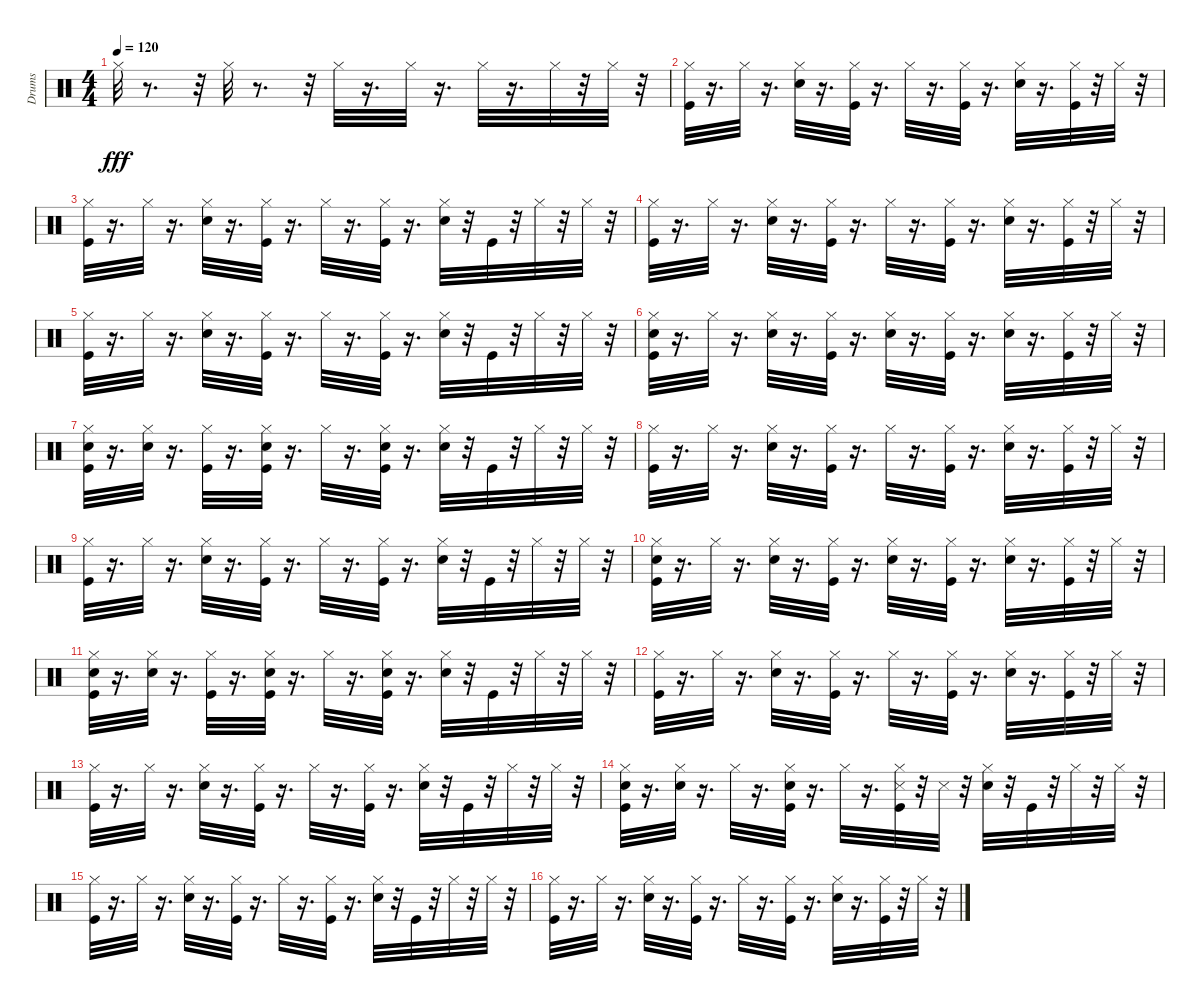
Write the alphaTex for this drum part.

\track ("Drums" "Drums") {solo instrument percussion}
\staff {score}
\articulation defaults
\ts (4 4)
\tempo 120
\clef neutral
\ks c "Hi-Hat (closed)".32{dy fff}
r.8{d} r.32 "Hi-Hat (closed)".32 r.8{d} r.32 "Hi-Hat (closed)".32 r.16{d} "Hi-Hat (closed)".32 r.16{d} "Hi-Hat (closed)".32 r.16{d} "Hi-Hat (closed)".32 r.32 "Hi-Hat (closed)".32 r.32 |
("Kick (hit)" "Hi-Hat (closed)").32 r.16{d} "Hi-Hat (closed)".32 r.16{d} ("Snare (hit) 2" "Hi-Hat (closed)").32 r.16{d} ("Kick (hit)" "Hi-Hat (closed)").32 r.16{d} "Hi-Hat (closed)".32 r.16{d} ("Kick (hit)" "Hi-Hat (closed)").32 r.16{d} ("Snare (hit) 2" "Hi-Hat (closed)").32 r.16{d} ("Kick (hit)" "Hi-Hat (closed)").32 r.32 "Hi-Hat (closed)".32 r.32 |
("Kick (hit)" "Hi-Hat (closed)").32 r.16{d} "Hi-Hat (closed)".32 r.16{d} ("Snare (hit) 2" "Hi-Hat (closed)").32 r.16{d} ("Kick (hit)" "Hi-Hat (closed)").32 r.16{d} "Hi-Hat (closed)".32 r.16{d} ("Kick (hit)" "Hi-Hat (closed)").32 r.16{d} ("Snare (hit) 2" "Hi-Hat (closed)").32 r.32 "Kick (hit)".32 r.32 "Hi-Hat (closed)".32 r.32 "Hi-Hat (closed)".32 r.32 |
("Kick (hit)" "Hi-Hat (closed)").32 r.16{d} "Hi-Hat (closed)".32 r.16{d} ("Snare (hit) 2" "Hi-Hat (closed)").32 r.16{d} ("Kick (hit)" "Hi-Hat (closed)").32 r.16{d} "Hi-Hat (closed)".32 r.16{d} ("Kick (hit)" "Hi-Hat (closed)").32 r.16{d} ("Snare (hit) 2" "Hi-Hat (closed)").32 r.16{d} ("Kick (hit)" "Hi-Hat (closed)").32 r.32 "Hi-Hat (closed)".32 r.32 |
("Kick (hit)" "Hi-Hat (closed)").32 r.16{d} "Hi-Hat (closed)".32 r.16{d} ("Snare (hit) 2" "Hi-Hat (closed)").32 r.16{d} ("Kick (hit)" "Hi-Hat (closed)").32 r.16{d} "Hi-Hat (closed)".32 r.16{d} ("Kick (hit)" "Hi-Hat (closed)").32 r.16{d} ("Snare (hit) 2" "Hi-Hat (closed)").32 r.32 "Kick (hit)".32 r.32 "Hi-Hat (closed)".32 r.32 "Hi-Hat (closed)".32 r.32 |
("Kick (hit)" "Snare (hit) 2" "Hi-Hat (closed)").32 r.16{d} "Hi-Hat (closed)".32 r.16{d} ("Snare (hit) 2" "Hi-Hat (closed)").32 r.16{d} ("Kick (hit)" "Hi-Hat (closed)").32 r.16{d} ("Snare (hit) 2" "Hi-Hat (closed)").32 r.16{d} ("Kick (hit)" "Hi-Hat (closed)").32 r.16{d} ("Snare (hit) 2" "Hi-Hat (closed)").32 r.16{d} ("Kick (hit)" "Hi-Hat (closed)").32 r.32 "Hi-Hat (closed)".32 r.32 |
("Kick (hit)" "Snare (hit) 2" "Hi-Hat (closed)").32 r.16{d} ("Snare (hit) 2" "Hi-Hat (closed)").32 r.16{d} ("Kick (hit)" "Hi-Hat (closed)").32 r.16{d} ("Kick (hit)" "Snare (hit) 2" "Hi-Hat (closed)").32 r.16{d} "Hi-Hat (closed)".32 r.16{d} ("Kick (hit)" "Snare (hit) 2" "Hi-Hat (closed)").32 r.16{d} ("Snare (hit) 2" "Hi-Hat (closed)").32 r.32 "Kick (hit)".32 r.32 "Hi-Hat (closed)".32 r.32 "Hi-Hat (closed)".32 r.32 |
("Kick (hit)" "Hi-Hat (closed)").32 r.16{d} "Hi-Hat (closed)".32 r.16{d} ("Snare (hit) 2" "Hi-Hat (closed)").32 r.16{d} ("Kick (hit)" "Hi-Hat (closed)").32 r.16{d} "Hi-Hat (closed)".32 r.16{d} ("Kick (hit)" "Hi-Hat (closed)").32 r.16{d} ("Snare (hit) 2" "Hi-Hat (closed)").32 r.16{d} ("Kick (hit)" "Hi-Hat (closed)").32 r.32 "Hi-Hat (closed)".32 r.32 |
("Kick (hit)" "Hi-Hat (closed)").32 r.16{d} "Hi-Hat (closed)".32 r.16{d} ("Snare (hit) 2" "Hi-Hat (closed)").32 r.16{d} ("Kick (hit)" "Hi-Hat (closed)").32 r.16{d} "Hi-Hat (closed)".32 r.16{d} ("Kick (hit)" "Hi-Hat (closed)").32 r.16{d} ("Snare (hit) 2" "Hi-Hat (closed)").32 r.32 "Kick (hit)".32 r.32 "Hi-Hat (closed)".32 r.32 "Hi-Hat (closed)".32 r.32 |
("Kick (hit)" "Snare (hit) 2" "Hi-Hat (closed)").32 r.16{d} "Hi-Hat (closed)".32 r.16{d} ("Snare (hit) 2" "Hi-Hat (closed)").32 r.16{d} ("Kick (hit)" "Hi-Hat (closed)").32 r.16{d} ("Snare (hit) 2" "Hi-Hat (closed)").32 r.16{d} ("Kick (hit)" "Hi-Hat (closed)").32 r.16{d} ("Snare (hit) 2" "Hi-Hat (closed)").32 r.16{d} ("Kick (hit)" "Hi-Hat (closed)").32 r.32 "Hi-Hat (closed)".32 r.32 |
("Kick (hit)" "Snare (hit) 2" "Hi-Hat (closed)").32 r.16{d} ("Snare (hit) 2" "Hi-Hat (closed)").32 r.16{d} ("Kick (hit)" "Hi-Hat (closed)").32 r.16{d} ("Kick (hit)" "Snare (hit) 2" "Hi-Hat (closed)").32 r.16{d} "Hi-Hat (closed)".32 r.16{d} ("Kick (hit)" "Snare (hit) 2" "Hi-Hat (closed)").32 r.16{d} ("Snare (hit) 2" "Hi-Hat (closed)").32 r.32 "Kick (hit)".32 r.32 "Hi-Hat (closed)".32 r.32 "Hi-Hat (closed)".32 r.32 |
("Kick (hit)" "Hi-Hat (closed)").32 r.16{d} "Hi-Hat (closed)".32 r.16{d} ("Snare (hit) 2" "Hi-Hat (closed)").32 r.16{d} ("Kick (hit)" "Hi-Hat (closed)").32 r.16{d} "Hi-Hat (closed)".32 r.16{d} ("Kick (hit)" "Hi-Hat (closed)").32 r.16{d} ("Snare (hit) 2" "Hi-Hat (closed)").32 r.16{d} ("Kick (hit)" "Hi-Hat (closed)").32 r.32 "Hi-Hat (closed)".32 r.32 |
("Kick (hit)" "Hi-Hat (closed)").32 r.16{d} "Hi-Hat (closed)".32 r.16{d} ("Snare (hit) 2" "Hi-Hat (closed)").32 r.16{d} ("Kick (hit)" "Hi-Hat (closed)").32 r.16{d} "Hi-Hat (closed)".32 r.16{d} ("Kick (hit)" "Hi-Hat (closed)").32 r.16{d} ("Snare (hit) 2" "Hi-Hat (closed)").32 r.32 "Kick (hit)".32 r.32 "Hi-Hat (closed)".32 r.32 "Hi-Hat (closed)".32 r.32 |
("Kick (hit)" "Snare (hit) 2" "Hi-Hat (closed)").32 r.16{d} ("Snare (hit) 2" "Hi-Hat (closed)").32 r.16{d} "Hi-Hat (closed)".32 r.16{d} ("Kick (hit)" "Snare (hit) 2" "Hi-Hat (closed)").32 r.16{d} "Hi-Hat (closed)".32 r.16{d} ("Kick (hit)" "Hi-Hat (closed)" "Snare (side stick) 3").32 r.32 "Snare (side stick) 3".32 r.32 ("Snare (hit) 2" "Hi-Hat (closed)").32 r.32 "Kick (hit)".32 r.32 "Hi-Hat (closed)".32 r.32 "Hi-Hat (closed)".32 r.32 |
("Kick (hit)" "Hi-Hat (closed)").32 r.16{d} "Hi-Hat (closed)".32 r.16{d} ("Snare (hit) 2" "Hi-Hat (closed)").32 r.16{d} ("Kick (hit)" "Hi-Hat (closed)").32 r.16{d} "Hi-Hat (closed)".32 r.16{d} ("Kick (hit)" "Hi-Hat (closed)").32 r.16{d} ("Snare (hit) 2" "Hi-Hat (closed)").32 r.32 "Kick (hit)".32 r.32 "Hi-Hat (closed)".32 r.32 "Hi-Hat (closed)".32 r.32 |
("Kick (hit)" "Hi-Hat (closed)").32 r.16{d} "Hi-Hat (closed)".32 r.16{d} ("Snare (hit) 2" "Hi-Hat (closed)").32 r.16{d} ("Kick (hit)" "Hi-Hat (closed)").32 r.16{d} "Hi-Hat (closed)".32 r.16{d} ("Kick (hit)" "Hi-Hat (closed)").32 r.16{d} ("Snare (hit) 2" "Hi-Hat (closed)").32 r.16{d} ("Kick (hit)" "Hi-Hat (closed)").32 r.32 "Hi-Hat (closed)".32 r.32
